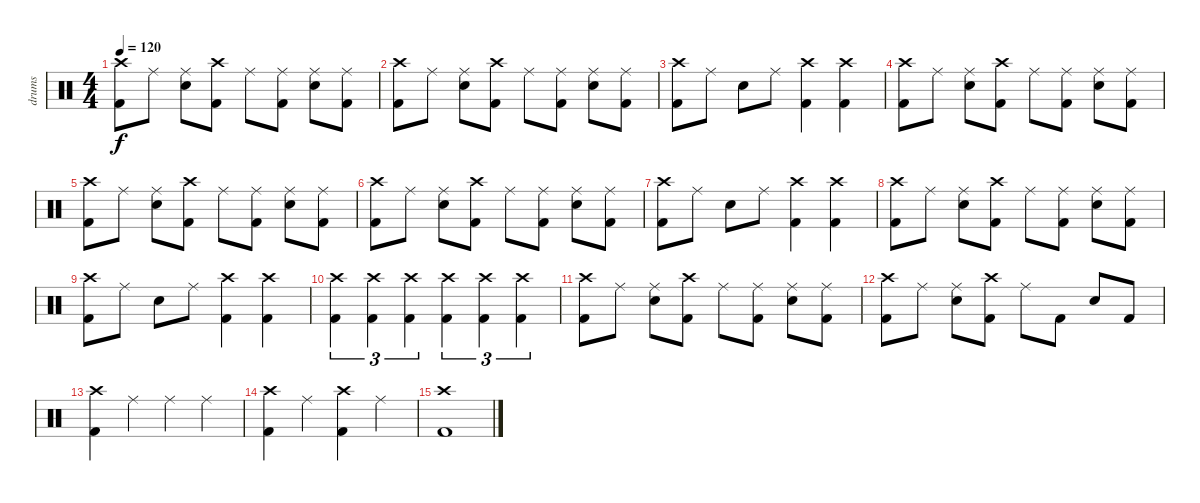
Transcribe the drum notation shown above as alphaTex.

\track ("drums" "drums") {instrument percussion}
\staff {score}
\articulation defaults
\ts (4 4)
\tempo 120
\clef neutral
\ks c
("Crash high (hit)" "Kick (hit) 2").8{dy f} "Ride (middle)".8 ("Ride (middle)" "Snare (hit) 2").8 ("Crash high (hit)" "Kick (hit) 2").8 "Ride (middle)".8 ("Ride (middle)" "Kick (hit) 2").8 ("Ride (middle)" "Snare (hit) 2").8 ("Ride (middle)" "Kick (hit) 2").8 |
("Crash high (hit)" "Kick (hit) 2").8 "Ride (middle)".8 ("Ride (middle)" "Snare (hit) 2").8 ("Crash high (hit)" "Kick (hit) 2").8 "Ride (middle)".8 ("Ride (middle)" "Kick (hit) 2").8 ("Ride (middle)" "Snare (hit) 2").8 ("Ride (middle)" "Kick (hit) 2").8 |
("Crash high (hit)" "Kick (hit) 2").8 "Ride (middle)".8 "Snare (hit) 2".8 "Ride (middle)".8 ("Crash high (hit)" "Kick (hit) 2").4 ("Crash high (hit)" "Kick (hit) 2").4 |
("Crash high (hit)" "Kick (hit) 2").8 "Ride (middle)".8 ("Ride (middle)" "Snare (hit) 2").8 ("Crash high (hit)" "Kick (hit) 2").8 "Ride (middle)".8 ("Ride (middle)" "Kick (hit) 2").8 ("Ride (middle)" "Snare (hit) 2").8 ("Ride (middle)" "Kick (hit) 2").8 |
("Crash high (hit)" "Kick (hit) 2").8 "Ride (middle)".8 ("Ride (middle)" "Snare (hit) 2").8 ("Crash high (hit)" "Kick (hit) 2").8 "Ride (middle)".8 ("Ride (middle)" "Kick (hit) 2").8 ("Ride (middle)" "Snare (hit) 2").8 ("Ride (middle)" "Kick (hit) 2").8 |
("Crash high (hit)" "Kick (hit) 2").8 "Ride (middle)".8 ("Ride (middle)" "Snare (hit) 2").8 ("Crash high (hit)" "Kick (hit) 2").8 "Ride (middle)".8 ("Ride (middle)" "Kick (hit) 2").8 ("Ride (middle)" "Snare (hit) 2").8 ("Ride (middle)" "Kick (hit) 2").8 |
("Crash high (hit)" "Kick (hit) 2").8 "Ride (middle)".8 "Snare (hit) 2".8 "Ride (middle)".8 ("Crash high (hit)" "Kick (hit) 2").4 ("Crash high (hit)" "Kick (hit) 2").4 |
("Crash high (hit)" "Kick (hit) 2").8 "Ride (middle)".8 ("Ride (middle)" "Snare (hit) 2").8 ("Crash high (hit)" "Kick (hit) 2").8 "Ride (middle)".8 ("Ride (middle)" "Kick (hit) 2").8 ("Ride (middle)" "Snare (hit) 2").8 ("Ride (middle)" "Kick (hit) 2").8 |
("Crash high (hit)" "Kick (hit) 2").8 "Ride (middle)".8 "Snare (hit) 2".8 "Ride (middle)".8 ("Crash high (hit)" "Kick (hit) 2").4 ("Crash high (hit)" "Kick (hit) 2").4 |
("Crash high (hit)" "Kick (hit) 2").4{tu (3 2)} ("Crash high (hit)" "Kick (hit) 2").4{tu (3 2)} ("Crash high (hit)" "Kick (hit) 2").4{tu (3 2)} ("Crash high (hit)" "Kick (hit) 2").4{tu (3 2)} ("Crash high (hit)" "Kick (hit) 2").4{tu (3 2)} ("Crash high (hit)" "Kick (hit) 2").4{tu (3 2)} |
("Crash high (hit)" "Kick (hit) 2").8 "Ride (middle)".8 ("Ride (middle)" "Snare (hit) 2").8 ("Crash high (hit)" "Kick (hit) 2").8 "Ride (middle)".8 ("Ride (middle)" "Kick (hit) 2").8 ("Ride (middle)" "Snare (hit) 2").8 ("Ride (middle)" "Kick (hit) 2").8 |
("Crash high (hit)" "Kick (hit) 2").8 "Ride (middle)".8 ("Ride (middle)" "Snare (hit) 2").8 ("Kick (hit) 2" "Crash high (hit)").8 "Ride (middle)".8 "Kick (hit) 2".8 "Snare (hit) 2".8 "Kick (hit) 2".8 |
("Crash high (hit)" "Kick (hit) 2").4 "Ride (middle)".4 "Ride (middle)".4 "Ride (middle)".4 |
("Crash high (hit)" "Kick (hit) 2").4 "Ride (middle)".4 ("Crash high (hit)" "Kick (hit) 2").4 "Ride (middle)".4 |
("Crash high (hit)" "Kick (hit) 2").1
